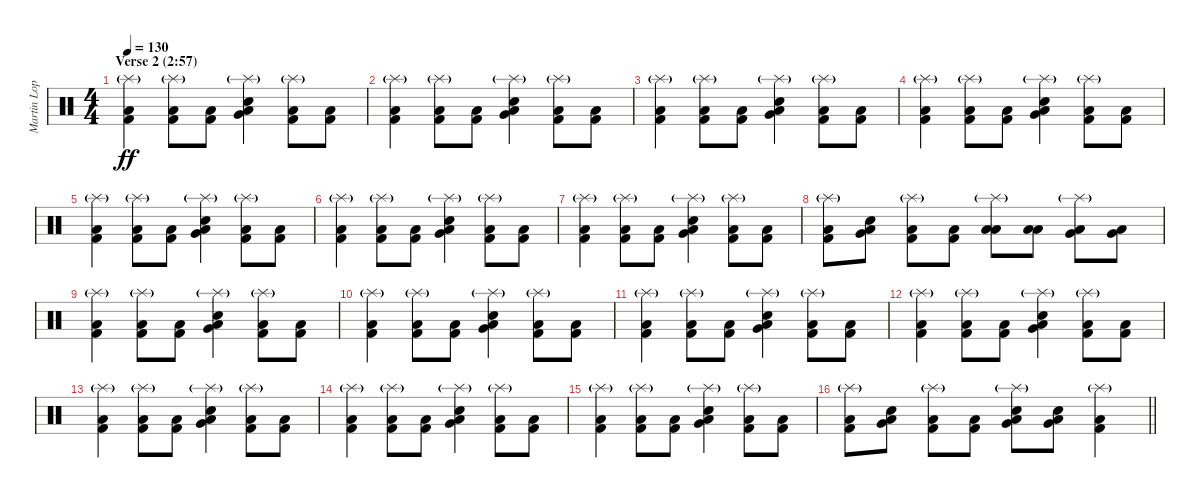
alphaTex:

\track ("Martin Lopez" "Martin Lop") {instrument percussion}
\staff {score}
\articulation defaults
\ts (4 4)
\section ("" "Verse 2 (2:57)")
\tempo 130
\clef neutral
\ks c
("Splash (hit)"{g} "Kick (hit) 2" "Low Floor Tom (hit)").4{dy ff} ("Splash (hit)"{g} "Kick (hit) 2" "Low Floor Tom (hit)").8 ("Kick (hit) 2" "Low Floor Tom (hit)").8 ("Splash (hit)"{g} "Very Low Tom (hit)" "Snare (hit) 2" "Low Floor Tom (hit)").4 ("Splash (hit)"{g} "Kick (hit) 2" "Low Floor Tom (hit)").8 ("Kick (hit) 2" "Low Floor Tom (hit)").8 |
("Splash (hit)"{g} "Kick (hit) 2" "Low Floor Tom (hit)").4 ("Splash (hit)"{g} "Kick (hit) 2" "Low Floor Tom (hit)").8 ("Kick (hit) 2" "Low Floor Tom (hit)").8 ("Splash (hit)"{g} "Very Low Tom (hit)" "Snare (hit) 2" "Low Floor Tom (hit)").4 ("Splash (hit)"{g} "Kick (hit) 2" "Low Floor Tom (hit)").8 ("Kick (hit) 2" "Low Floor Tom (hit)").8 |
("Splash (hit)"{g} "Kick (hit) 2" "Low Floor Tom (hit)").4 ("Splash (hit)"{g} "Kick (hit) 2" "Low Floor Tom (hit)").8 ("Kick (hit) 2" "Low Floor Tom (hit)").8 ("Splash (hit)"{g} "Very Low Tom (hit)" "Snare (hit) 2" "Low Floor Tom (hit)").4 ("Splash (hit)"{g} "Kick (hit) 2" "Low Floor Tom (hit)").8 ("Kick (hit) 2" "Low Floor Tom (hit)").8 |
("Splash (hit)"{g} "Kick (hit) 2" "Low Floor Tom (hit)").4 ("Splash (hit)"{g} "Kick (hit) 2" "Low Floor Tom (hit)").8 ("Kick (hit) 2" "Low Floor Tom (hit)").8 ("Splash (hit)"{g} "Very Low Tom (hit)" "Snare (hit) 2" "Low Floor Tom (hit)").4 ("Splash (hit)"{g} "Kick (hit) 2" "Low Floor Tom (hit)").8 ("Kick (hit) 2" "Low Floor Tom (hit)").8 |
("Splash (hit)"{g} "Kick (hit) 2" "Low Floor Tom (hit)").4 ("Splash (hit)"{g} "Kick (hit) 2" "Low Floor Tom (hit)").8 ("Kick (hit) 2" "Low Floor Tom (hit)").8 ("Splash (hit)"{g} "Very Low Tom (hit)" "Snare (hit) 2" "Low Floor Tom (hit)").4 ("Splash (hit)"{g} "Kick (hit) 2" "Low Floor Tom (hit)").8 ("Kick (hit) 2" "Low Floor Tom (hit)").8 |
("Splash (hit)"{g} "Kick (hit) 2" "Low Floor Tom (hit)").4 ("Splash (hit)"{g} "Kick (hit) 2" "Low Floor Tom (hit)").8 ("Kick (hit) 2" "Low Floor Tom (hit)").8 ("Splash (hit)"{g} "Very Low Tom (hit)" "Snare (hit) 2" "Low Floor Tom (hit)").4 ("Splash (hit)"{g} "Kick (hit) 2" "Low Floor Tom (hit)").8 ("Kick (hit) 2" "Low Floor Tom (hit)").8 |
("Splash (hit)"{g} "Kick (hit) 2" "Low Floor Tom (hit)").4 ("Splash (hit)"{g} "Kick (hit) 2" "Low Floor Tom (hit)").8 ("Kick (hit) 2" "Low Floor Tom (hit)").8 ("Splash (hit)"{g} "Very Low Tom (hit)" "Snare (hit) 2" "Low Floor Tom (hit)").4 ("Splash (hit)"{g} "Kick (hit) 2" "Low Floor Tom (hit)").8 ("Kick (hit) 2" "Low Floor Tom (hit)").8 |
("Splash (hit)"{g} "Kick (hit) 2" "Low Floor Tom (hit)").8 ("Very Low Tom (hit)" "Snare (hit) 2" "Low Floor Tom (hit)").8 ("Splash (hit)"{g} "Kick (hit) 2" "Low Floor Tom (hit)").8 ("Kick (hit) 2" "Low Floor Tom (hit)").8 ("Splash (hit)"{g} "Low Tom (hit)" "Low Floor Tom (hit)").8 ("Low Tom (hit)" "Low Floor Tom (hit)").8 ("Splash (hit)"{g} "Very Low Tom (hit)" "Low Floor Tom (hit)").8 ("Very Low Tom (hit)" "Low Floor Tom (hit)").8 |
("Splash (hit)"{g} "Kick (hit) 2" "Low Floor Tom (hit)").4 ("Splash (hit)"{g} "Kick (hit) 2" "Low Floor Tom (hit)").8 ("Kick (hit) 2" "Low Floor Tom (hit)").8 ("Splash (hit)"{g} "Very Low Tom (hit)" "Snare (hit) 2" "Low Floor Tom (hit)").4 ("Splash (hit)"{g} "Kick (hit) 2" "Low Floor Tom (hit)").8 ("Kick (hit) 2" "Low Floor Tom (hit)").8 |
("Splash (hit)"{g} "Kick (hit) 2" "Low Floor Tom (hit)").4 ("Splash (hit)"{g} "Kick (hit) 2" "Low Floor Tom (hit)").8 ("Kick (hit) 2" "Low Floor Tom (hit)").8 ("Splash (hit)"{g} "Very Low Tom (hit)" "Snare (hit) 2" "Low Floor Tom (hit)").4 ("Splash (hit)"{g} "Kick (hit) 2" "Low Floor Tom (hit)").8 ("Kick (hit) 2" "Low Floor Tom (hit)").8 |
("Splash (hit)"{g} "Kick (hit) 2" "Low Floor Tom (hit)").4 ("Splash (hit)"{g} "Kick (hit) 2" "Low Floor Tom (hit)").8 ("Kick (hit) 2" "Low Floor Tom (hit)").8 ("Splash (hit)"{g} "Very Low Tom (hit)" "Snare (hit) 2" "Low Floor Tom (hit)").4 ("Splash (hit)"{g} "Kick (hit) 2" "Low Floor Tom (hit)").8 ("Kick (hit) 2" "Low Floor Tom (hit)").8 |
("Splash (hit)"{g} "Kick (hit) 2" "Low Floor Tom (hit)").4 ("Splash (hit)"{g} "Kick (hit) 2" "Low Floor Tom (hit)").8 ("Kick (hit) 2" "Low Floor Tom (hit)").8 ("Splash (hit)"{g} "Very Low Tom (hit)" "Snare (hit) 2" "Low Floor Tom (hit)").4 ("Splash (hit)"{g} "Kick (hit) 2" "Low Floor Tom (hit)").8 ("Kick (hit) 2" "Low Floor Tom (hit)").8 |
("Splash (hit)"{g} "Kick (hit) 2" "Low Floor Tom (hit)").4 ("Splash (hit)"{g} "Kick (hit) 2" "Low Floor Tom (hit)").8 ("Kick (hit) 2" "Low Floor Tom (hit)").8 ("Splash (hit)"{g} "Very Low Tom (hit)" "Snare (hit) 2" "Low Floor Tom (hit)").4 ("Splash (hit)"{g} "Kick (hit) 2" "Low Floor Tom (hit)").8 ("Kick (hit) 2" "Low Floor Tom (hit)").8 |
("Splash (hit)"{g} "Kick (hit) 2" "Low Floor Tom (hit)").4 ("Splash (hit)"{g} "Kick (hit) 2" "Low Floor Tom (hit)").8 ("Kick (hit) 2" "Low Floor Tom (hit)").8 ("Splash (hit)"{g} "Very Low Tom (hit)" "Snare (hit) 2" "Low Floor Tom (hit)").4 ("Splash (hit)"{g} "Kick (hit) 2" "Low Floor Tom (hit)").8 ("Kick (hit) 2" "Low Floor Tom (hit)").8 |
("Splash (hit)"{g} "Kick (hit) 2" "Low Floor Tom (hit)").4 ("Splash (hit)"{g} "Kick (hit) 2" "Low Floor Tom (hit)").8 ("Kick (hit) 2" "Low Floor Tom (hit)").8 ("Splash (hit)"{g} "Very Low Tom (hit)" "Snare (hit) 2" "Low Floor Tom (hit)").4 ("Splash (hit)"{g} "Kick (hit) 2" "Low Floor Tom (hit)").8 ("Kick (hit) 2" "Low Floor Tom (hit)").8 |
\barLineRight lightlight
("Splash (hit)"{g} "Kick (hit) 2" "Low Floor Tom (hit)").8 ("Very Low Tom (hit)" "Snare (hit) 2" "Low Floor Tom (hit)").8 ("Splash (hit)"{g} "Kick (hit) 2" "Low Floor Tom (hit)").8 ("Kick (hit) 2" "Low Floor Tom (hit)").8 ("Splash (hit)"{g} "Very Low Tom (hit)" "Snare (hit) 2" "Low Floor Tom (hit)").8 ("Very Low Tom (hit)" "Snare (hit) 2" "Low Floor Tom (hit)").8 ("Splash (hit)"{g} "Kick (hit) 2" "Low Floor Tom (hit)").4
